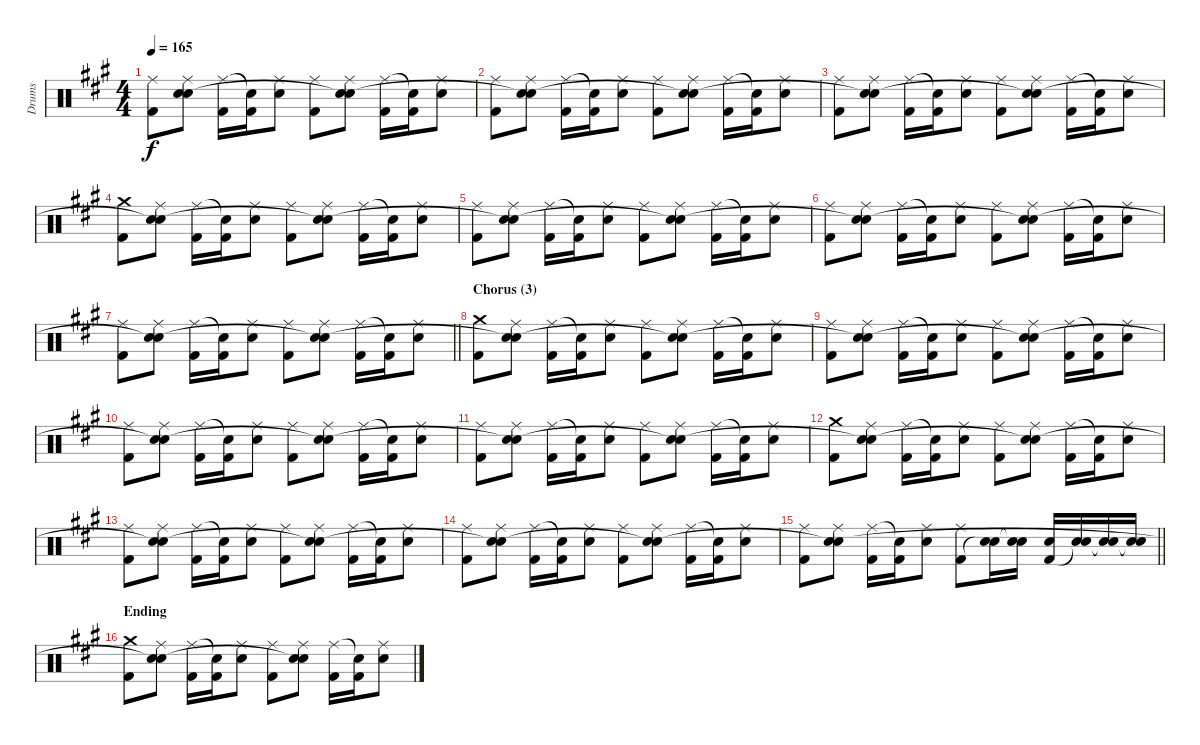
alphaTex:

\track ("Drums" "Drums") {instrument percussion}
\staff {score}
\articulation defaults
\ts (4 4)
\tempo 165
\clef neutral
\ks f#minor
("Ride (middle)" "Kick (hit) 2").8{dy f} ("Ride (middle)" "Electric Snare (hit)" "Snare (hit)"{t}).8 ("Ride (middle)" "Kick (hit) 2").16 ("Snare (hit)"{t} "Kick (hit) 2").16 ("Ride (middle)" "Electric Snare (hit)").8 ("Ride (middle)" "Kick (hit) 2").8 ("Ride (middle)" "Electric Snare (hit)" "Snare (hit)"{t}).8 ("Ride (middle)" "Kick (hit) 2").16 ("Snare (hit)"{t} "Kick (hit) 2").16 ("Ride (middle)" "Electric Snare (hit)").8 |
("Ride (middle)" "Kick (hit) 2").8 ("Ride (middle)" "Electric Snare (hit)" "Snare (hit)"{t}).8 ("Ride (middle)" "Kick (hit) 2").16 ("Snare (hit)"{t} "Kick (hit) 2").16 ("Ride (middle)" "Electric Snare (hit)").8 ("Ride (middle)" "Kick (hit) 2").8 ("Ride (middle)" "Electric Snare (hit)" "Snare (hit)"{t}).8 ("Ride (middle)" "Kick (hit) 2").16 ("Snare (hit)"{t} "Kick (hit) 2").16 ("Ride (middle)" "Electric Snare (hit)").8 |
("Ride (middle)" "Kick (hit) 2").8 ("Ride (middle)" "Electric Snare (hit)" "Snare (hit)"{t}).8 ("Ride (middle)" "Kick (hit) 2").16 ("Snare (hit)"{t} "Kick (hit) 2").16 ("Ride (middle)" "Electric Snare (hit)").8 ("Ride (middle)" "Kick (hit) 2").8 ("Ride (middle)" "Electric Snare (hit)" "Snare (hit)"{t}).8 ("Ride (middle)" "Kick (hit) 2").16 ("Snare (hit)"{t} "Kick (hit) 2").16 ("Ride (middle)" "Electric Snare (hit)").8 |
("Crash medium (hit)" "Kick (hit) 2").8 ("Ride (middle)" "Electric Snare (hit)" "Snare (hit)"{t}).8 ("Ride (middle)" "Kick (hit) 2").16 ("Snare (hit)"{t} "Kick (hit) 2").16 ("Ride (middle)" "Electric Snare (hit)").8 ("Ride (middle)" "Kick (hit) 2").8 ("Ride (middle)" "Electric Snare (hit)" "Snare (hit)"{t}).8 ("Ride (middle)" "Kick (hit) 2").16 ("Snare (hit)"{t} "Kick (hit) 2").16 ("Ride (middle)" "Electric Snare (hit)").8 |
("Ride (middle)" "Kick (hit) 2").8 ("Ride (middle)" "Electric Snare (hit)" "Snare (hit)"{t}).8 ("Ride (middle)" "Kick (hit) 2").16 ("Snare (hit)"{t} "Kick (hit) 2").16 ("Ride (middle)" "Electric Snare (hit)").8 ("Ride (middle)" "Kick (hit) 2").8 ("Ride (middle)" "Electric Snare (hit)" "Snare (hit)"{t}).8 ("Ride (middle)" "Kick (hit) 2").16 ("Snare (hit)"{t} "Kick (hit) 2").16 ("Ride (middle)" "Electric Snare (hit)").8 |
("Ride (middle)" "Kick (hit) 2").8 ("Ride (middle)" "Electric Snare (hit)" "Snare (hit)"{t}).8 ("Ride (middle)" "Kick (hit) 2").16 ("Snare (hit)"{t} "Kick (hit) 2").16 ("Ride (middle)" "Electric Snare (hit)").8 ("Ride (middle)" "Kick (hit) 2").8 ("Ride (middle)" "Electric Snare (hit)" "Snare (hit)"{t}).8 ("Ride (middle)" "Kick (hit) 2").16 ("Snare (hit)"{t} "Kick (hit) 2").16 ("Ride (middle)" "Electric Snare (hit)").8 |
\barLineRight lightlight
("Ride (middle)" "Kick (hit) 2").8 ("Ride (middle)" "Electric Snare (hit)" "Snare (hit)"{t}).8 ("Ride (middle)" "Kick (hit) 2").16 ("Snare (hit)"{t} "Kick (hit) 2").16 ("Ride (middle)" "Electric Snare (hit)").8 ("Ride (middle)" "Kick (hit) 2").8 ("Ride (middle)" "Electric Snare (hit)" "Snare (hit)"{t}).8 ("Ride (middle)" "Kick (hit) 2").16 ("Snare (hit)"{t} "Kick (hit) 2").16 ("Ride (middle)" "Electric Snare (hit)").8 |
\section ("" "Chorus (3)")
("Crash medium (hit)" "Kick (hit) 2").8 ("Ride (middle)" "Electric Snare (hit)" "Snare (hit)"{t}).8 ("Ride (middle)" "Kick (hit) 2").16 ("Snare (hit)"{t} "Kick (hit) 2").16 ("Ride (middle)" "Electric Snare (hit)").8 ("Ride (middle)" "Kick (hit) 2").8 ("Ride (middle)" "Electric Snare (hit)" "Snare (hit)"{t}).8 ("Ride (middle)" "Kick (hit) 2").16 ("Snare (hit)"{t} "Kick (hit) 2").16 ("Ride (middle)" "Electric Snare (hit)").8 |
("Ride (middle)" "Kick (hit) 2").8 ("Ride (middle)" "Electric Snare (hit)" "Snare (hit)"{t}).8 ("Ride (middle)" "Kick (hit) 2").16 ("Snare (hit)"{t} "Kick (hit) 2").16 ("Ride (middle)" "Electric Snare (hit)").8 ("Ride (middle)" "Kick (hit) 2").8 ("Ride (middle)" "Electric Snare (hit)" "Snare (hit)"{t}).8 ("Ride (middle)" "Kick (hit) 2").16 ("Snare (hit)"{t} "Kick (hit) 2").16 ("Ride (middle)" "Electric Snare (hit)").8 |
("Ride (middle)" "Kick (hit) 2").8 ("Ride (middle)" "Electric Snare (hit)" "Snare (hit)"{t}).8 ("Ride (middle)" "Kick (hit) 2").16 ("Snare (hit)"{t} "Kick (hit) 2").16 ("Ride (middle)" "Electric Snare (hit)").8 ("Ride (middle)" "Kick (hit) 2").8 ("Ride (middle)" "Electric Snare (hit)" "Snare (hit)"{t}).8 ("Ride (middle)" "Kick (hit) 2").16 ("Snare (hit)"{t} "Kick (hit) 2").16 ("Ride (middle)" "Electric Snare (hit)").8 |
("Ride (middle)" "Kick (hit) 2").8 ("Ride (middle)" "Electric Snare (hit)" "Snare (hit)"{t}).8 ("Ride (middle)" "Kick (hit) 2").16 ("Snare (hit)"{t} "Kick (hit) 2").16 ("Ride (middle)" "Electric Snare (hit)").8 ("Ride (middle)" "Kick (hit) 2").8 ("Ride (middle)" "Electric Snare (hit)" "Snare (hit)"{t}).8 ("Ride (middle)" "Kick (hit) 2").16 ("Snare (hit)"{t} "Kick (hit) 2").16 ("Ride (middle)" "Electric Snare (hit)").8 |
("Crash medium (hit)" "Kick (hit) 2").8 ("Ride (middle)" "Electric Snare (hit)" "Snare (hit)"{t}).8 ("Ride (middle)" "Kick (hit) 2").16 ("Snare (hit)"{t} "Kick (hit) 2").16 ("Ride (middle)" "Electric Snare (hit)").8 ("Ride (middle)" "Kick (hit) 2").8 ("Ride (middle)" "Electric Snare (hit)" "Snare (hit)"{t}).8 ("Ride (middle)" "Kick (hit) 2").16 ("Snare (hit)"{t} "Kick (hit) 2").16 ("Ride (middle)" "Electric Snare (hit)").8 |
("Ride (middle)" "Kick (hit) 2").8 ("Ride (middle)" "Electric Snare (hit)" "Snare (hit)"{t}).8 ("Ride (middle)" "Kick (hit) 2").16 ("Snare (hit)"{t} "Kick (hit) 2").16 ("Ride (middle)" "Electric Snare (hit)").8 ("Ride (middle)" "Kick (hit) 2").8 ("Ride (middle)" "Electric Snare (hit)" "Snare (hit)"{t}).8 ("Ride (middle)" "Kick (hit) 2").16 ("Snare (hit)"{t} "Kick (hit) 2").16 ("Ride (middle)" "Electric Snare (hit)").8 |
("Ride (middle)" "Kick (hit) 2").8 ("Ride (middle)" "Electric Snare (hit)" "Snare (hit)"{t}).8 ("Ride (middle)" "Kick (hit) 2").16 ("Snare (hit)"{t} "Kick (hit) 2").16 ("Ride (middle)" "Electric Snare (hit)").8 ("Ride (middle)" "Kick (hit) 2").8 ("Ride (middle)" "Electric Snare (hit)" "Snare (hit)"{t}).8 ("Ride (middle)" "Kick (hit) 2").16 ("Snare (hit)"{t} "Kick (hit) 2").16 ("Ride (middle)" "Electric Snare (hit)").8 |
\barLineRight lightlight
("Ride (middle)" "Kick (hit) 2").8 ("Ride (middle)" "Electric Snare (hit)" "Snare (hit)"{t}).8 ("Ride (middle)" "Kick (hit) 2").16 ("Snare (hit)"{t} "Kick (hit) 2").16 ("Ride (middle)" "Electric Snare (hit)").8 ("Ride (middle)" "Kick (hit) 2").8 ("Electric Snare (hit)" "Snare (hit)"{t}).16 ("Electric Snare (hit)" "Snare (hit)"{t}).16 ("Electric Snare (hit)" "Kick (hit) 2").16 ("Electric Snare (hit)" "Snare (hit)"{t}).16 ("Electric Snare (hit)" "Snare (hit)"{t}).16 ("Electric Snare (hit)" "Snare (hit)"{t}).16 |
\section ("" "Ending")
("Crash medium (hit)" "Kick (hit) 2").8 ("Ride (middle)" "Electric Snare (hit)" "Snare (hit)"{t}).8 ("Ride (middle)" "Kick (hit) 2").16 ("Snare (hit)"{t} "Kick (hit) 2").16 ("Ride (middle)" "Electric Snare (hit)").8 ("Ride (middle)" "Kick (hit) 2").8 ("Ride (middle)" "Electric Snare (hit)" "Snare (hit)"{t}).8 ("Ride (middle)" "Kick (hit) 2").16 ("Snare (hit)"{t} "Kick (hit) 2").16 ("Ride (middle)" "Electric Snare (hit)").8
